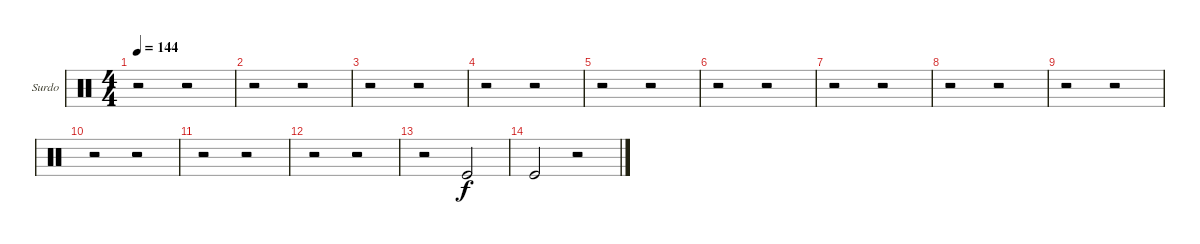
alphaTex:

\bracketExtendMode groupsimilarinstruments
\firstSystemTrackNameOrientation horizontal
\otherSystemsTrackNameOrientation horizontal
\track ("Surdo" "Surdo") {instrument percussion}
\staff {score}
\articulation defaults
\ts (4 4)
\tempo 144
\clef neutral
\ks c
r.2{dy f} r.2 |
r.2 r.2 |
r.2 r.2 |
r.2 r.2 |
r.2 r.2 |
r.2 r.2 |
r.2 r.2 |
r.2 r.2 |
r.2 r.2 |
r.2 r.2 |
r.2 r.2 |
r.2 r.2 |
r.2 "Kick (hit)".2 |
"Kick (hit)".2 r.2
